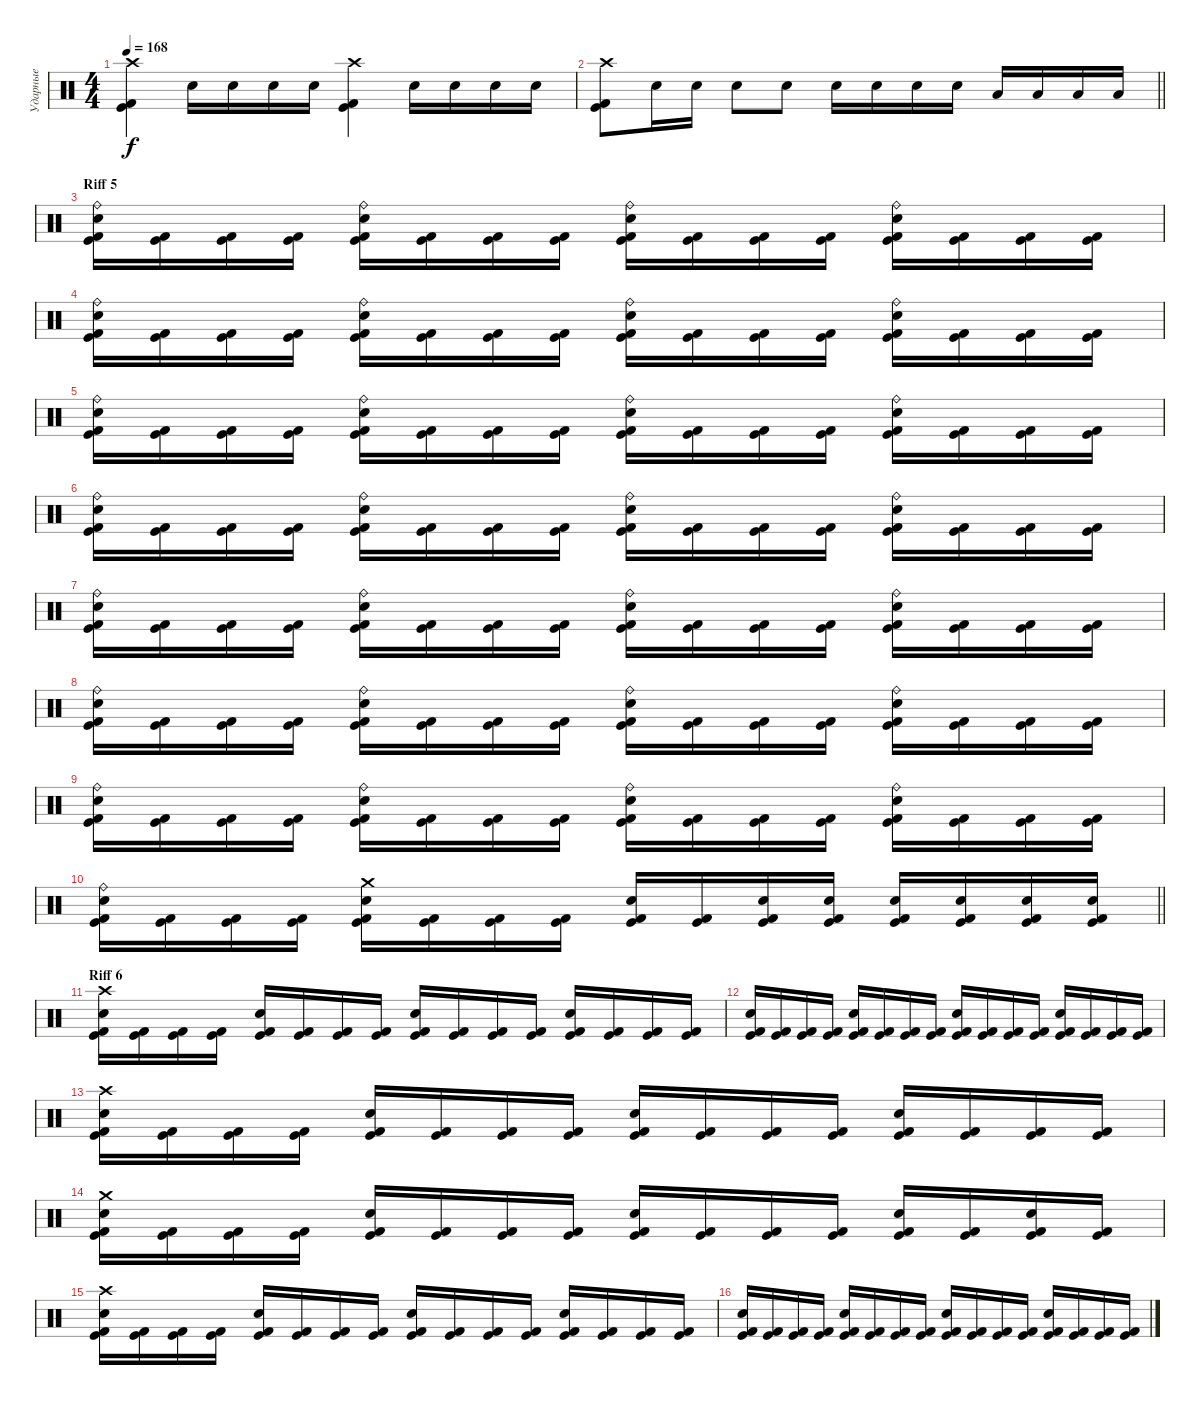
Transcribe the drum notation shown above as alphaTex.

\track ("Ударные" "Ударные") {instrument percussion}
\staff {score}
\articulation defaults
\ts (4 4)
\tempo 168
\clef neutral
\ks c
("Crash high (hit)" "Kick (hit)" "Kick (hit) 2").4{dy f} "Electric Snare (hit)".16 "Electric Snare (hit)".16 "Electric Snare (hit)".16 "Electric Snare (hit)".16 ("Crash high (hit)" "Kick (hit)" "Kick (hit) 2").4 "Electric Snare (hit)".16 "Electric Snare (hit)".16 "Electric Snare (hit)".16 "Electric Snare (hit)".16 |
\barLineRight lightlight
("Crash high (hit)" "Kick (hit)" "Kick (hit) 2").8 "Electric Snare (hit)".16 "Electric Snare (hit)".16 "Electric Snare (hit)".8 "Electric Snare (hit)".8 "Electric Snare (hit)".16 "Electric Snare (hit)".16 "Electric Snare (hit)".16 "Electric Snare (hit)".16 "Low Tom (hit)".16 "Low Tom (hit)".16 "Low Tom (hit)".16 "Low Tom (hit)".16 |
\section ("" "Riff 5")
("Ride (bell)" "Electric Snare (hit)" "Kick (hit)" "Kick (hit) 2").16 ("Kick (hit)" "Kick (hit) 2").16 ("Kick (hit)" "Kick (hit) 2").16 ("Kick (hit)" "Kick (hit) 2").16 ("Ride (bell)" "Electric Snare (hit)" "Kick (hit)" "Kick (hit) 2").16 ("Kick (hit)" "Kick (hit) 2").16 ("Kick (hit)" "Kick (hit) 2").16 ("Kick (hit)" "Kick (hit) 2").16 ("Ride (bell)" "Electric Snare (hit)" "Kick (hit)" "Kick (hit) 2").16 ("Kick (hit)" "Kick (hit) 2").16 ("Kick (hit)" "Kick (hit) 2").16 ("Kick (hit)" "Kick (hit) 2").16 ("Ride (bell)" "Electric Snare (hit)" "Kick (hit)" "Kick (hit) 2").16 ("Kick (hit)" "Kick (hit) 2").16 ("Kick (hit)" "Kick (hit) 2").16 ("Kick (hit)" "Kick (hit) 2").16 |
("Ride (bell)" "Electric Snare (hit)" "Kick (hit)" "Kick (hit) 2").16 ("Kick (hit)" "Kick (hit) 2").16 ("Kick (hit)" "Kick (hit) 2").16 ("Kick (hit)" "Kick (hit) 2").16 ("Ride (bell)" "Electric Snare (hit)" "Kick (hit)" "Kick (hit) 2").16 ("Kick (hit)" "Kick (hit) 2").16 ("Kick (hit)" "Kick (hit) 2").16 ("Kick (hit)" "Kick (hit) 2").16 ("Ride (bell)" "Electric Snare (hit)" "Kick (hit)" "Kick (hit) 2").16 ("Kick (hit)" "Kick (hit) 2").16 ("Kick (hit)" "Kick (hit) 2").16 ("Kick (hit)" "Kick (hit) 2").16 ("Ride (bell)" "Electric Snare (hit)" "Kick (hit)" "Kick (hit) 2").16 ("Kick (hit)" "Kick (hit) 2").16 ("Kick (hit)" "Kick (hit) 2").16 ("Kick (hit)" "Kick (hit) 2").16 |
("Ride (bell)" "Electric Snare (hit)" "Kick (hit)" "Kick (hit) 2").16 ("Kick (hit)" "Kick (hit) 2").16 ("Kick (hit)" "Kick (hit) 2").16 ("Kick (hit)" "Kick (hit) 2").16 ("Ride (bell)" "Electric Snare (hit)" "Kick (hit)" "Kick (hit) 2").16 ("Kick (hit)" "Kick (hit) 2").16 ("Kick (hit)" "Kick (hit) 2").16 ("Kick (hit)" "Kick (hit) 2").16 ("Ride (bell)" "Electric Snare (hit)" "Kick (hit)" "Kick (hit) 2").16 ("Kick (hit)" "Kick (hit) 2").16 ("Kick (hit)" "Kick (hit) 2").16 ("Kick (hit)" "Kick (hit) 2").16 ("Ride (bell)" "Electric Snare (hit)" "Kick (hit)" "Kick (hit) 2").16 ("Kick (hit)" "Kick (hit) 2").16 ("Kick (hit)" "Kick (hit) 2").16 ("Kick (hit)" "Kick (hit) 2").16 |
("Ride (bell)" "Electric Snare (hit)" "Kick (hit)" "Kick (hit) 2").16 ("Kick (hit)" "Kick (hit) 2").16 ("Kick (hit)" "Kick (hit) 2").16 ("Kick (hit)" "Kick (hit) 2").16 ("Ride (bell)" "Electric Snare (hit)" "Kick (hit)" "Kick (hit) 2").16 ("Kick (hit)" "Kick (hit) 2").16 ("Kick (hit)" "Kick (hit) 2").16 ("Kick (hit)" "Kick (hit) 2").16 ("Ride (bell)" "Electric Snare (hit)" "Kick (hit)" "Kick (hit) 2").16 ("Kick (hit)" "Kick (hit) 2").16 ("Kick (hit)" "Kick (hit) 2").16 ("Kick (hit)" "Kick (hit) 2").16 ("Ride (bell)" "Electric Snare (hit)" "Kick (hit)" "Kick (hit) 2").16 ("Kick (hit)" "Kick (hit) 2").16 ("Kick (hit)" "Kick (hit) 2").16 ("Kick (hit)" "Kick (hit) 2").16 |
("Ride (bell)" "Electric Snare (hit)" "Kick (hit)" "Kick (hit) 2").16 ("Kick (hit)" "Kick (hit) 2").16 ("Kick (hit)" "Kick (hit) 2").16 ("Kick (hit)" "Kick (hit) 2").16 ("Ride (bell)" "Electric Snare (hit)" "Kick (hit)" "Kick (hit) 2").16 ("Kick (hit)" "Kick (hit) 2").16 ("Kick (hit)" "Kick (hit) 2").16 ("Kick (hit)" "Kick (hit) 2").16 ("Ride (bell)" "Electric Snare (hit)" "Kick (hit)" "Kick (hit) 2").16 ("Kick (hit)" "Kick (hit) 2").16 ("Kick (hit)" "Kick (hit) 2").16 ("Kick (hit)" "Kick (hit) 2").16 ("Ride (bell)" "Electric Snare (hit)" "Kick (hit)" "Kick (hit) 2").16 ("Kick (hit)" "Kick (hit) 2").16 ("Kick (hit)" "Kick (hit) 2").16 ("Kick (hit)" "Kick (hit) 2").16 |
("Ride (bell)" "Electric Snare (hit)" "Kick (hit)" "Kick (hit) 2").16 ("Kick (hit)" "Kick (hit) 2").16 ("Kick (hit)" "Kick (hit) 2").16 ("Kick (hit)" "Kick (hit) 2").16 ("Ride (bell)" "Electric Snare (hit)" "Kick (hit)" "Kick (hit) 2").16 ("Kick (hit)" "Kick (hit) 2").16 ("Kick (hit)" "Kick (hit) 2").16 ("Kick (hit)" "Kick (hit) 2").16 ("Ride (bell)" "Electric Snare (hit)" "Kick (hit)" "Kick (hit) 2").16 ("Kick (hit)" "Kick (hit) 2").16 ("Kick (hit)" "Kick (hit) 2").16 ("Kick (hit)" "Kick (hit) 2").16 ("Ride (bell)" "Electric Snare (hit)" "Kick (hit)" "Kick (hit) 2").16 ("Kick (hit)" "Kick (hit) 2").16 ("Kick (hit)" "Kick (hit) 2").16 ("Kick (hit)" "Kick (hit) 2").16 |
("Ride (bell)" "Electric Snare (hit)" "Kick (hit)" "Kick (hit) 2").16 ("Kick (hit)" "Kick (hit) 2").16 ("Kick (hit)" "Kick (hit) 2").16 ("Kick (hit)" "Kick (hit) 2").16 ("Ride (bell)" "Electric Snare (hit)" "Kick (hit)" "Kick (hit) 2").16 ("Kick (hit)" "Kick (hit) 2").16 ("Kick (hit)" "Kick (hit) 2").16 ("Kick (hit)" "Kick (hit) 2").16 ("Ride (bell)" "Electric Snare (hit)" "Kick (hit)" "Kick (hit) 2").16 ("Kick (hit)" "Kick (hit) 2").16 ("Kick (hit)" "Kick (hit) 2").16 ("Kick (hit)" "Kick (hit) 2").16 ("Ride (bell)" "Electric Snare (hit)" "Kick (hit)" "Kick (hit) 2").16 ("Kick (hit)" "Kick (hit) 2").16 ("Kick (hit)" "Kick (hit) 2").16 ("Kick (hit)" "Kick (hit) 2").16 |
\barLineRight lightlight
("Ride (bell)" "Electric Snare (hit)" "Kick (hit)" "Kick (hit) 2").16 ("Kick (hit)" "Kick (hit) 2").16 ("Kick (hit)" "Kick (hit) 2").16 ("Kick (hit)" "Kick (hit) 2").16 ("Crash medium (hit)" "Electric Snare (hit)" "Kick (hit)" "Kick (hit) 2").16 ("Kick (hit)" "Kick (hit) 2").16 ("Kick (hit)" "Kick (hit) 2").16 ("Kick (hit)" "Kick (hit) 2").16 ("Electric Snare (hit)" "Kick (hit)" "Kick (hit) 2").16 ("Kick (hit)" "Kick (hit) 2").16 ("Electric Snare (hit)" "Kick (hit)" "Kick (hit) 2").16 ("Electric Snare (hit)" "Kick (hit)" "Kick (hit) 2").16 ("Electric Snare (hit)" "Kick (hit)" "Kick (hit) 2").16 ("Electric Snare (hit)" "Kick (hit)" "Kick (hit) 2").16 ("Electric Snare (hit)" "Kick (hit)" "Kick (hit) 2").16 ("Electric Snare (hit)" "Kick (hit)" "Kick (hit) 2").16 |
\section ("" "Riff 6")
("Crash high (hit)" "Electric Snare (hit)" "Kick (hit)" "Kick (hit) 2").16 ("Kick (hit)" "Kick (hit) 2").16 ("Kick (hit)" "Kick (hit) 2").16 ("Kick (hit)" "Kick (hit) 2").16 ("Electric Snare (hit)" "Kick (hit)" "Kick (hit) 2").16 ("Kick (hit)" "Kick (hit) 2").16 ("Kick (hit)" "Kick (hit) 2").16 ("Kick (hit)" "Kick (hit) 2").16 ("Electric Snare (hit)" "Kick (hit)" "Kick (hit) 2").16 ("Kick (hit)" "Kick (hit) 2").16 ("Kick (hit)" "Kick (hit) 2").16 ("Kick (hit)" "Kick (hit) 2").16 ("Electric Snare (hit)" "Kick (hit)" "Kick (hit) 2").16 ("Kick (hit)" "Kick (hit) 2").16 ("Kick (hit)" "Kick (hit) 2").16 ("Kick (hit)" "Kick (hit) 2").16 |
("Electric Snare (hit)" "Kick (hit)" "Kick (hit) 2").16 ("Kick (hit)" "Kick (hit) 2").16 ("Kick (hit)" "Kick (hit) 2").16 ("Kick (hit)" "Kick (hit) 2").16 ("Electric Snare (hit)" "Kick (hit)" "Kick (hit) 2").16 ("Kick (hit)" "Kick (hit) 2").16 ("Kick (hit)" "Kick (hit) 2").16 ("Kick (hit)" "Kick (hit) 2").16 ("Electric Snare (hit)" "Kick (hit)" "Kick (hit) 2").16 ("Kick (hit)" "Kick (hit) 2").16 ("Kick (hit)" "Kick (hit) 2").16 ("Kick (hit)" "Kick (hit) 2").16 ("Electric Snare (hit)" "Kick (hit)" "Kick (hit) 2").16 ("Kick (hit)" "Kick (hit) 2").16 ("Kick (hit)" "Kick (hit) 2").16 ("Kick (hit)" "Kick (hit) 2").16 |
("Crash high (hit)" "Electric Snare (hit)" "Kick (hit)" "Kick (hit) 2").16 ("Kick (hit)" "Kick (hit) 2").16 ("Kick (hit)" "Kick (hit) 2").16 ("Kick (hit)" "Kick (hit) 2").16 ("Electric Snare (hit)" "Kick (hit)" "Kick (hit) 2").16 ("Kick (hit)" "Kick (hit) 2").16 ("Kick (hit)" "Kick (hit) 2").16 ("Kick (hit)" "Kick (hit) 2").16 ("Electric Snare (hit)" "Kick (hit)" "Kick (hit) 2").16 ("Kick (hit)" "Kick (hit) 2").16 ("Kick (hit)" "Kick (hit) 2").16 ("Kick (hit)" "Kick (hit) 2").16 ("Electric Snare (hit)" "Kick (hit)" "Kick (hit) 2").16 ("Kick (hit)" "Kick (hit) 2").16 ("Kick (hit)" "Kick (hit) 2").16 ("Kick (hit)" "Kick (hit) 2").16 |
("Crash medium (hit)" "Electric Snare (hit)" "Kick (hit)" "Kick (hit) 2").16 ("Kick (hit)" "Kick (hit) 2").16 ("Kick (hit)" "Kick (hit) 2").16 ("Kick (hit)" "Kick (hit) 2").16 ("Electric Snare (hit)" "Kick (hit)" "Kick (hit) 2").16 ("Kick (hit)" "Kick (hit) 2").16 ("Kick (hit)" "Kick (hit) 2").16 ("Kick (hit)" "Kick (hit) 2").16 ("Electric Snare (hit)" "Kick (hit)" "Kick (hit) 2").16 ("Kick (hit)" "Kick (hit) 2").16 ("Kick (hit)" "Kick (hit) 2").16 ("Kick (hit)" "Kick (hit) 2").16 ("Electric Snare (hit)" "Kick (hit)" "Kick (hit) 2").16 ("Kick (hit)" "Kick (hit) 2").16 ("Electric Snare (hit)" "Kick (hit)" "Kick (hit) 2").16 ("Kick (hit)" "Kick (hit) 2").16 |
("Crash high (hit)" "Electric Snare (hit)" "Kick (hit)" "Kick (hit) 2").16 ("Kick (hit)" "Kick (hit) 2").16 ("Kick (hit)" "Kick (hit) 2").16 ("Kick (hit)" "Kick (hit) 2").16 ("Electric Snare (hit)" "Kick (hit)" "Kick (hit) 2").16 ("Kick (hit)" "Kick (hit) 2").16 ("Kick (hit)" "Kick (hit) 2").16 ("Kick (hit)" "Kick (hit) 2").16 ("Electric Snare (hit)" "Kick (hit)" "Kick (hit) 2").16 ("Kick (hit)" "Kick (hit) 2").16 ("Kick (hit)" "Kick (hit) 2").16 ("Kick (hit)" "Kick (hit) 2").16 ("Electric Snare (hit)" "Kick (hit)" "Kick (hit) 2").16 ("Kick (hit)" "Kick (hit) 2").16 ("Kick (hit)" "Kick (hit) 2").16 ("Kick (hit)" "Kick (hit) 2").16 |
("Electric Snare (hit)" "Kick (hit)" "Kick (hit) 2").16 ("Kick (hit)" "Kick (hit) 2").16 ("Kick (hit)" "Kick (hit) 2").16 ("Kick (hit)" "Kick (hit) 2").16 ("Electric Snare (hit)" "Kick (hit)" "Kick (hit) 2").16 ("Kick (hit)" "Kick (hit) 2").16 ("Kick (hit)" "Kick (hit) 2").16 ("Kick (hit)" "Kick (hit) 2").16 ("Electric Snare (hit)" "Kick (hit)" "Kick (hit) 2").16 ("Kick (hit)" "Kick (hit) 2").16 ("Kick (hit)" "Kick (hit) 2").16 ("Kick (hit)" "Kick (hit) 2").16 ("Electric Snare (hit)" "Kick (hit)" "Kick (hit) 2").16 ("Kick (hit)" "Kick (hit) 2").16 ("Kick (hit)" "Kick (hit) 2").16 ("Kick (hit)" "Kick (hit) 2").16
